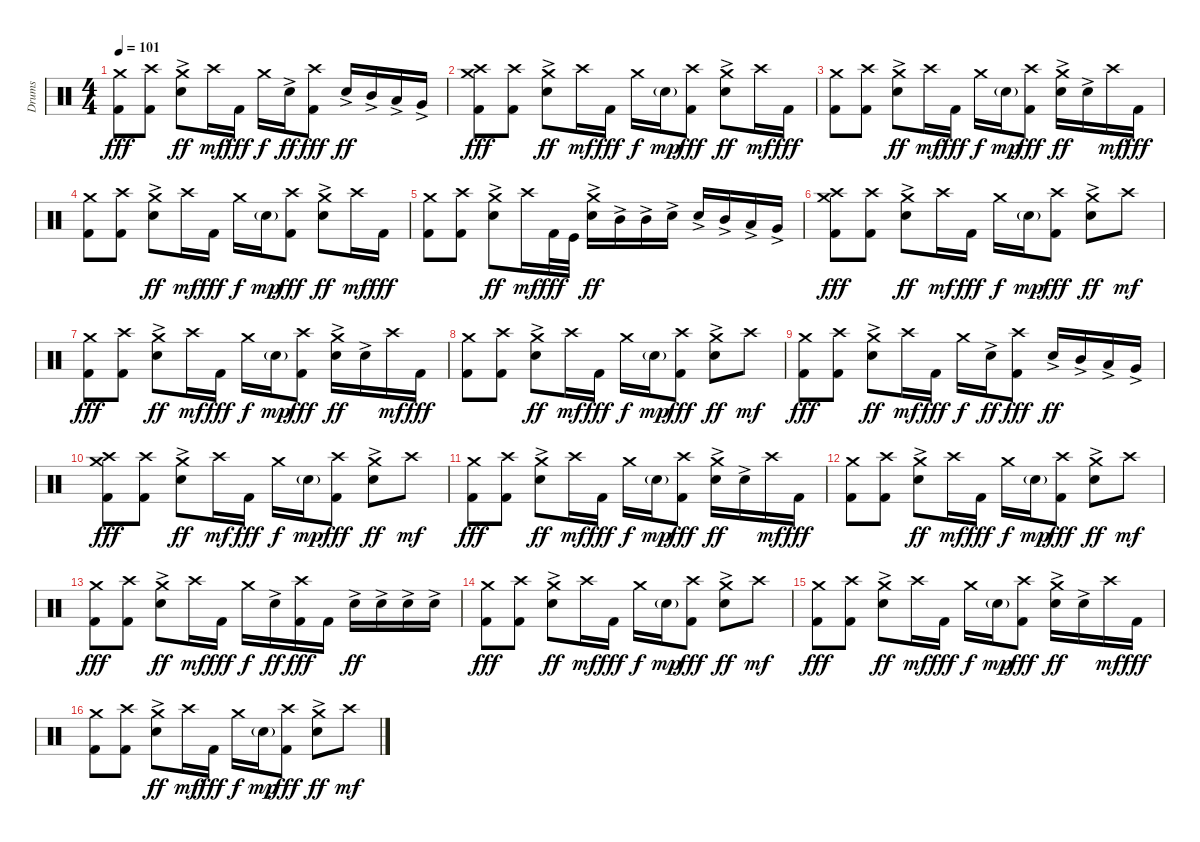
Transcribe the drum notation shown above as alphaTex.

\track ("Drums" "Drums") {instrument percussion}
\staff {score}
\articulation defaults
\ts (4 4)
\tempo 101
\clef neutral
\ks c
("Crash medium (hit)" "Kick (hit) 2").8{dy fff} ("Crash high (hit)" "Kick (hit) 2").8 ("Crash medium (hit)" "Electric Snare (hit)"{ac}).8{dy ff} "Crash high (hit)".16{dy mf} "Kick (hit) 2".16{dy fff} "Crash medium (hit)".16{dy f} "Electric Snare (hit)"{ac}.16{dy ff} ("Crash high (hit)" "Kick (hit) 2").8{dy fff} "Electric Snare (hit)"{ac}.16{dy ff} "Mid Tom (hit)"{ac}.16 "Low Tom (hit)"{ac}.16 "Very Low Tom (hit)"{ac}.16 |
("Crash medium (hit)" "Crash high (hit)" "Kick (hit) 2").8{dy fff} ("Crash high (hit)" "Kick (hit) 2").8 ("Crash medium (hit)" "Electric Snare (hit)"{ac}).8{dy ff} "Crash high (hit)".16{dy mf} "Kick (hit) 2".16{dy fff} "Crash medium (hit)".16{dy f} "Snare (hit) 2"{g}.16{dy mp} ("Crash high (hit)" "Kick (hit) 2").8{dy fff} ("Crash medium (hit)" "Electric Snare (hit)"{ac}).8{dy ff} "Crash high (hit)".16{dy mf} "Kick (hit) 2".16{dy fff} |
("Crash medium (hit)" "Kick (hit) 2").8 ("Crash high (hit)" "Kick (hit) 2").8 ("Crash medium (hit)" "Electric Snare (hit)"{ac}).8{dy ff} "Crash high (hit)".16{dy mf} "Kick (hit) 2".16{dy fff} "Crash medium (hit)".16{dy f} "Snare (hit) 2"{g}.16{dy mp} ("Crash high (hit)" "Kick (hit) 2").8{dy fff} ("Crash medium (hit)" "Electric Snare (hit)"{ac}).16{dy ff} "Electric Snare (hit)"{ac}.16 "Crash high (hit)".16{dy mf} "Kick (hit) 2".16{dy fff} |
("Crash medium (hit)" "Kick (hit) 2").8 ("Crash high (hit)" "Kick (hit) 2").8 ("Crash medium (hit)" "Electric Snare (hit)"{ac}).8{dy ff} "Crash high (hit)".16{dy mf} "Kick (hit) 2".16{dy fff} "Crash medium (hit)".16{dy f} "Snare (hit) 2"{g}.16{dy mp} ("Crash high (hit)" "Kick (hit) 2").8{dy fff} ("Crash medium (hit)" "Electric Snare (hit)"{ac}).8{dy ff} "Crash high (hit)".16{dy mf} "Kick (hit) 2".16{dy fff} |
("Crash medium (hit)" "Kick (hit) 2").8 ("Crash high (hit)" "Kick (hit) 2").8 ("Crash medium (hit)" "Electric Snare (hit)"{ac}).8{dy ff} "Crash high (hit)".16{dy mf} "Kick (hit) 2".32{dy fff} "Kick (hit)".32 ("Crash medium (hit)" "Electric Snare (hit)"{ac}).16{dy ff} "Mid Tom (hit)"{ac}.16 "Mid Tom (hit)"{ac}.16 "Electric Snare (hit)"{ac}.16 "Electric Snare (hit)"{ac}.16 "Mid Tom (hit)"{ac}.16 "Low Tom (hit)"{ac}.16 "Very Low Tom (hit)"{ac}.16 |
("Crash medium (hit)" "Crash high (hit)" "Kick (hit) 2").8{dy fff} ("Crash high (hit)" "Kick (hit) 2").8 ("Crash medium (hit)" "Electric Snare (hit)"{ac}).8{dy ff} "Crash high (hit)".16{dy mf} "Kick (hit) 2".16{dy fff} "Crash medium (hit)".16{dy f} "Snare (hit) 2"{g}.16{dy mp} ("Crash high (hit)" "Kick (hit) 2").8{dy fff} ("Crash medium (hit)" "Electric Snare (hit)"{ac}).8{dy ff} "Crash high (hit)".8{dy mf} |
("Crash medium (hit)" "Kick (hit) 2").8{dy fff} ("Crash high (hit)" "Kick (hit) 2").8 ("Crash medium (hit)" "Electric Snare (hit)"{ac}).8{dy ff} "Crash high (hit)".16{dy mf} "Kick (hit) 2".16{dy fff} "Crash medium (hit)".16{dy f} "Snare (hit) 2"{g}.16{dy mp} ("Crash high (hit)" "Kick (hit) 2").8{dy fff} ("Crash medium (hit)" "Electric Snare (hit)"{ac}).16{dy ff} "Electric Snare (hit)"{ac}.16 "Crash high (hit)".16{dy mf} "Kick (hit) 2".16{dy fff} |
("Crash medium (hit)" "Kick (hit) 2").8 ("Crash high (hit)" "Kick (hit) 2").8 ("Crash medium (hit)" "Electric Snare (hit)"{ac}).8{dy ff} "Crash high (hit)".16{dy mf} "Kick (hit) 2".16{dy fff} "Crash medium (hit)".16{dy f} "Snare (hit) 2"{g}.16{dy mp} ("Crash high (hit)" "Kick (hit) 2").8{dy fff} ("Crash medium (hit)" "Electric Snare (hit)"{ac}).8{dy ff} "Crash high (hit)".8{dy mf} |
("Crash medium (hit)" "Kick (hit) 2").8{dy fff} ("Crash high (hit)" "Kick (hit) 2").8 ("Crash medium (hit)" "Electric Snare (hit)"{ac}).8{dy ff} "Crash high (hit)".16{dy mf} "Kick (hit) 2".16{dy fff} "Crash medium (hit)".16{dy f} "Electric Snare (hit)"{ac}.16{dy ff} ("Crash high (hit)" "Kick (hit) 2").8{dy fff} "Electric Snare (hit)"{ac}.16{dy ff} "Mid Tom (hit)"{ac}.16 "Low Tom (hit)"{ac}.16 "Very Low Tom (hit)"{ac}.16 |
("Crash medium (hit)" "Crash high (hit)" "Kick (hit) 2").8{dy fff} ("Crash high (hit)" "Kick (hit) 2").8 ("Crash medium (hit)" "Electric Snare (hit)"{ac}).8{dy ff} "Crash high (hit)".16{dy mf} "Kick (hit) 2".16{dy fff} "Crash medium (hit)".16{dy f} "Snare (hit) 2"{g}.16{dy mp} ("Crash high (hit)" "Kick (hit) 2").8{dy fff} ("Crash medium (hit)" "Electric Snare (hit)"{ac}).8{dy ff} "Crash high (hit)".8{dy mf} |
("Crash medium (hit)" "Kick (hit) 2").8{dy fff} ("Crash high (hit)" "Kick (hit) 2").8 ("Crash medium (hit)" "Electric Snare (hit)"{ac}).8{dy ff} "Crash high (hit)".16{dy mf} "Kick (hit) 2".16{dy fff} "Crash medium (hit)".16{dy f} "Snare (hit) 2"{g}.16{dy mp} ("Crash high (hit)" "Kick (hit) 2").8{dy fff} ("Crash medium (hit)" "Electric Snare (hit)"{ac}).16{dy ff} "Electric Snare (hit)"{ac}.16 "Crash high (hit)".16{dy mf} "Kick (hit) 2".16{dy fff} |
("Crash medium (hit)" "Kick (hit) 2").8 ("Crash high (hit)" "Kick (hit) 2").8 ("Crash medium (hit)" "Electric Snare (hit)"{ac}).8{dy ff} "Crash high (hit)".16{dy mf} "Kick (hit) 2".16{dy fff} "Crash medium (hit)".16{dy f} "Snare (hit) 2"{g}.16{dy mp} ("Crash high (hit)" "Kick (hit) 2").8{dy fff} ("Crash medium (hit)" "Electric Snare (hit)"{ac}).8{dy ff} "Crash high (hit)".8{dy mf} |
("Crash medium (hit)" "Kick (hit) 2").8{dy fff} ("Crash high (hit)" "Kick (hit) 2").8 ("Crash medium (hit)" "Electric Snare (hit)"{ac}).8{dy ff} "Crash high (hit)".16{dy mf} "Kick (hit) 2".16{dy fff} "Crash medium (hit)".16{dy f} "Electric Snare (hit)"{ac}.16{dy ff} ("Crash high (hit)" "Kick (hit) 2").16{dy fff} "Kick (hit) 2".16 "Electric Snare (hit)"{ac}.16{dy ff} "Electric Snare (hit)"{ac}.16 "Electric Snare (hit)"{ac}.16 "Electric Snare (hit)"{ac}.16 |
("Crash medium (hit)" "Kick (hit) 2").8{dy fff} ("Crash high (hit)" "Kick (hit) 2").8 ("Crash medium (hit)" "Electric Snare (hit)"{ac}).8{dy ff} "Crash high (hit)".16{dy mf} "Kick (hit) 2".16{dy fff} "Crash medium (hit)".16{dy f} "Snare (hit) 2"{g}.16{dy mp} ("Crash high (hit)" "Kick (hit) 2").8{dy fff} ("Crash medium (hit)" "Electric Snare (hit)"{ac}).8{dy ff} "Crash high (hit)".8{dy mf} |
("Crash medium (hit)" "Kick (hit) 2").8{dy fff} ("Crash high (hit)" "Kick (hit) 2").8 ("Crash medium (hit)" "Electric Snare (hit)"{ac}).8{dy ff} "Crash high (hit)".16{dy mf} "Kick (hit) 2".16{dy fff} "Crash medium (hit)".16{dy f} "Snare (hit) 2"{g}.16{dy mp} ("Crash high (hit)" "Kick (hit) 2").8{dy fff} ("Crash medium (hit)" "Electric Snare (hit)"{ac}).16{dy ff} "Electric Snare (hit)"{ac}.16 "Crash high (hit)".16{dy mf} "Kick (hit) 2".16{dy fff} |
("Crash medium (hit)" "Kick (hit) 2").8 ("Crash high (hit)" "Kick (hit) 2").8 ("Crash medium (hit)" "Electric Snare (hit)"{ac}).8{dy ff} "Crash high (hit)".16{dy mf} "Kick (hit) 2".16{dy fff} "Crash medium (hit)".16{dy f} "Snare (hit) 2"{g}.16{dy mp} ("Crash high (hit)" "Kick (hit) 2").8{dy fff} ("Crash medium (hit)" "Electric Snare (hit)"{ac}).8{dy ff} "Crash high (hit)".8{dy mf}
